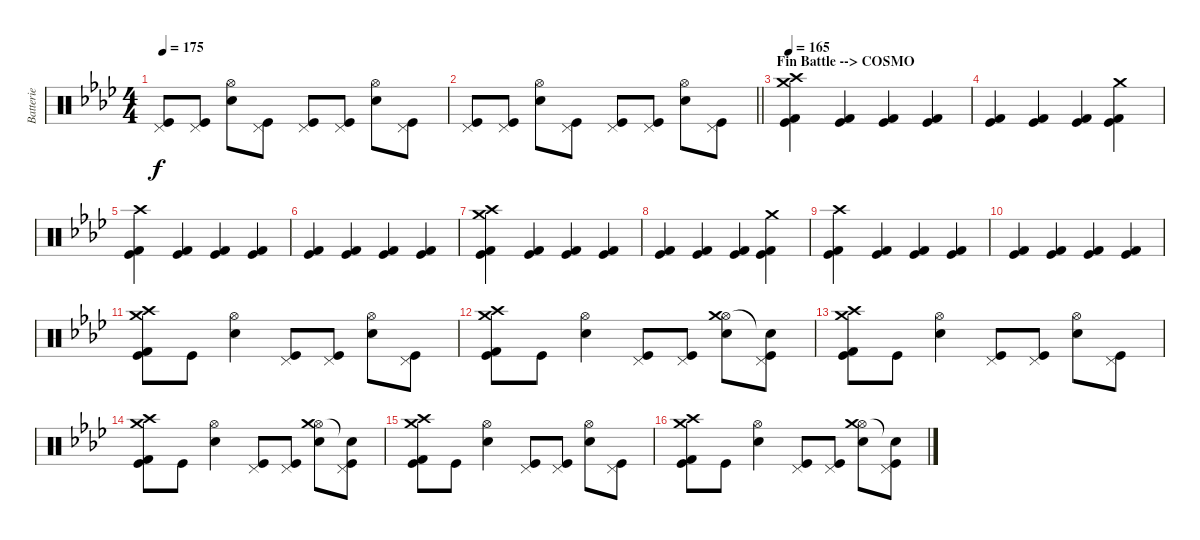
\track ("Batterie" "Batterie") {instrument percussion}
\staff {score}
\articulation defaults
\ts (4 4)
\tempo 175
\clef neutral
\ks ab
("Kick (hit)" "Pedal Hi-Hat (hit)").8{dy f} ("Kick (hit)" "Pedal Hi-Hat (hit)").8 ("Snare (hit) 2" "Hi-Hat (open)").8 ("Kick (hit)" "Pedal Hi-Hat (hit)").8 ("Kick (hit)" "Pedal Hi-Hat (hit)").8 ("Kick (hit)" "Pedal Hi-Hat (hit)").8 ("Snare (hit) 2" "Hi-Hat (open)").8 ("Kick (hit)" "Pedal Hi-Hat (hit)").8 |
\barLineRight lightlight
("Kick (hit)" "Pedal Hi-Hat (hit)").8 ("Kick (hit)" "Pedal Hi-Hat (hit)").8 ("Snare (hit) 2" "Hi-Hat (open)").8 ("Kick (hit)" "Pedal Hi-Hat (hit)").8 ("Kick (hit)" "Pedal Hi-Hat (hit)").8 ("Kick (hit)" "Pedal Hi-Hat (hit)").8 ("Snare (hit) 2" "Hi-Hat (open)").8 ("Kick (hit)" "Pedal Hi-Hat (hit)").8 |
\section ("" "Fin Battle --> COSMO")
\tempo 165
("Kick (hit)" "Kick (hit) 2" "Crash high (hit)" "Crash medium (hit)").4 ("Kick (hit)" "Kick (hit) 2").4 ("Kick (hit)" "Kick (hit) 2").4 ("Kick (hit)" "Kick (hit) 2").4 |
("Kick (hit)" "Kick (hit) 2").4 ("Kick (hit)" "Kick (hit) 2").4 ("Kick (hit)" "Kick (hit) 2").4 ("Kick (hit)" "Kick (hit) 2" "Crash medium (hit)").4 |
("Kick (hit)" "Kick (hit) 2" "Crash high (hit)").4 ("Kick (hit)" "Kick (hit) 2").4 ("Kick (hit)" "Kick (hit) 2").4 ("Kick (hit)" "Kick (hit) 2").4 |
("Kick (hit)" "Kick (hit) 2").4 ("Kick (hit)" "Kick (hit) 2").4 ("Kick (hit)" "Kick (hit) 2").4 ("Kick (hit)" "Kick (hit) 2").4 |
("Kick (hit)" "Kick (hit) 2" "Crash high (hit)" "Crash medium (hit)").4 ("Kick (hit)" "Kick (hit) 2").4 ("Kick (hit)" "Kick (hit) 2").4 ("Kick (hit)" "Kick (hit) 2").4 |
("Kick (hit)" "Kick (hit) 2").4 ("Kick (hit)" "Kick (hit) 2").4 ("Kick (hit)" "Kick (hit) 2").4 ("Kick (hit)" "Kick (hit) 2" "Crash medium (hit)").4 |
("Kick (hit)" "Kick (hit) 2" "Crash high (hit)").4 ("Kick (hit)" "Kick (hit) 2").4 ("Kick (hit)" "Kick (hit) 2").4 ("Kick (hit)" "Kick (hit) 2").4 |
("Kick (hit)" "Kick (hit) 2").4 ("Kick (hit)" "Kick (hit) 2").4 ("Kick (hit)" "Kick (hit) 2").4 ("Kick (hit)" "Kick (hit) 2").4 |
("Kick (hit)" "Kick (hit) 2" "Crash high (hit)" "Crash medium (hit)").8 "Kick (hit)".8 ("Snare (hit) 2" "Hi-Hat (open)").4 ("Kick (hit)" "Pedal Hi-Hat (hit)").8 ("Kick (hit)" "Pedal Hi-Hat (hit)").8 ("Snare (hit) 2" "Hi-Hat (open)").8 ("Kick (hit)" "Pedal Hi-Hat (hit)").8 |
("Kick (hit)" "Kick (hit) 2" "Crash high (hit)" "Crash medium (hit)").8 "Kick (hit)".8 ("Snare (hit) 2" "Hi-Hat (open)").4 ("Kick (hit)" "Pedal Hi-Hat (hit)").8 ("Kick (hit)" "Pedal Hi-Hat (hit)").8 ("Snare (hit) 2" "Hi-Hat (open)" "Crash medium (hit)").8 ("Kick (hit)" "Pedal Hi-Hat (hit)" "Snare (hit)"{t}).8 |
("Kick (hit)" "Kick (hit) 2" "Crash high (hit)" "Crash medium (hit)").8 "Kick (hit)".8 ("Snare (hit) 2" "Hi-Hat (open)").4 ("Kick (hit)" "Pedal Hi-Hat (hit)").8 ("Kick (hit)" "Pedal Hi-Hat (hit)").8 ("Snare (hit) 2" "Hi-Hat (open)").8 ("Kick (hit)" "Pedal Hi-Hat (hit)").8 |
("Kick (hit)" "Kick (hit) 2" "Crash high (hit)" "Crash medium (hit)").8 "Kick (hit)".8 ("Snare (hit) 2" "Hi-Hat (open)").4 ("Kick (hit)" "Pedal Hi-Hat (hit)").8 ("Kick (hit)" "Pedal Hi-Hat (hit)").8 ("Snare (hit) 2" "Hi-Hat (open)" "Crash medium (hit)").8 ("Kick (hit)" "Pedal Hi-Hat (hit)" "Snare (hit)"{t}).8 |
("Kick (hit)" "Kick (hit) 2" "Crash high (hit)" "Crash medium (hit)").8 "Kick (hit)".8 ("Snare (hit) 2" "Hi-Hat (open)").4 ("Kick (hit)" "Pedal Hi-Hat (hit)").8 ("Kick (hit)" "Pedal Hi-Hat (hit)").8 ("Snare (hit) 2" "Hi-Hat (open)").8 ("Kick (hit)" "Pedal Hi-Hat (hit)").8 |
("Kick (hit)" "Kick (hit) 2" "Crash high (hit)" "Crash medium (hit)").8 "Kick (hit)".8 ("Snare (hit) 2" "Hi-Hat (open)").4 ("Kick (hit)" "Pedal Hi-Hat (hit)").8 ("Kick (hit)" "Pedal Hi-Hat (hit)").8 ("Snare (hit) 2" "Hi-Hat (open)" "Crash medium (hit)").8 ("Kick (hit)" "Pedal Hi-Hat (hit)" "Snare (hit)"{t}).8
